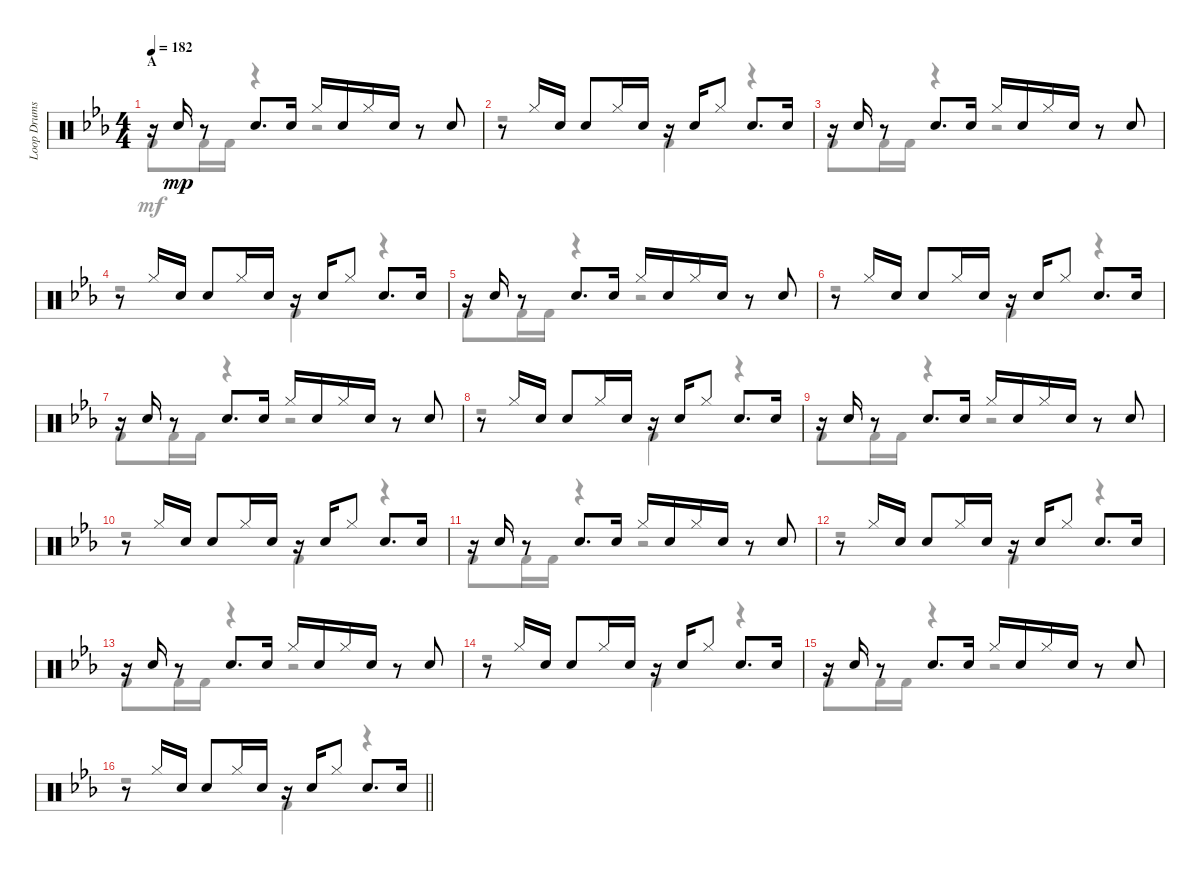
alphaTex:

\track ("Loop Drums" "Loop Drums") {instrument percussion}
\staff {score}
\articulation defaults
\voice
\ts (4 4)
\section ("" "A")
\tempo 182
\clef neutral
\ks eb
r.16{dy mp} "Electric Snare (hit)".16 r.8 "Electric Snare (hit)".8{d} "Electric Snare (hit)".16 "Hi-Hat (closed)".16 "Electric Snare (hit)".16 "Hi-Hat (closed)".16 "Electric Snare (hit)".16 r.8 "Electric Snare (hit)".8 |
r.8 "Hi-Hat (closed)".16 "Electric Snare (hit)".16 "Electric Snare (hit)".8 "Hi-Hat (closed)".16 "Electric Snare (hit)".16 r.16 "Electric Snare (hit)".16 "Hi-Hat (closed)".8 "Electric Snare (hit)".8{d} "Electric Snare (hit)".16 |
r.16 "Electric Snare (hit)".16 r.8 "Electric Snare (hit)".8{d} "Electric Snare (hit)".16 "Hi-Hat (closed)".16 "Electric Snare (hit)".16 "Hi-Hat (closed)".16 "Electric Snare (hit)".16 r.8 "Electric Snare (hit)".8 |
r.8 "Hi-Hat (closed)".16 "Electric Snare (hit)".16 "Electric Snare (hit)".8 "Hi-Hat (closed)".16 "Electric Snare (hit)".16 r.16 "Electric Snare (hit)".16 "Hi-Hat (closed)".8 "Electric Snare (hit)".8{d} "Electric Snare (hit)".16 |
r.16 "Electric Snare (hit)".16 r.8 "Electric Snare (hit)".8{d} "Electric Snare (hit)".16 "Hi-Hat (closed)".16 "Electric Snare (hit)".16 "Hi-Hat (closed)".16 "Electric Snare (hit)".16 r.8 "Electric Snare (hit)".8 |
r.8 "Hi-Hat (closed)".16 "Electric Snare (hit)".16 "Electric Snare (hit)".8 "Hi-Hat (closed)".16 "Electric Snare (hit)".16 r.16 "Electric Snare (hit)".16 "Hi-Hat (closed)".8 "Electric Snare (hit)".8{d} "Electric Snare (hit)".16 |
r.16 "Electric Snare (hit)".16 r.8 "Electric Snare (hit)".8{d} "Electric Snare (hit)".16 "Hi-Hat (closed)".16 "Electric Snare (hit)".16 "Hi-Hat (closed)".16 "Electric Snare (hit)".16 r.8 "Electric Snare (hit)".8 |
r.8 "Hi-Hat (closed)".16 "Electric Snare (hit)".16 "Electric Snare (hit)".8 "Hi-Hat (closed)".16 "Electric Snare (hit)".16 r.16 "Electric Snare (hit)".16 "Hi-Hat (closed)".8 "Electric Snare (hit)".8{d} "Electric Snare (hit)".16 |
r.16 "Electric Snare (hit)".16 r.8 "Electric Snare (hit)".8{d} "Electric Snare (hit)".16 "Hi-Hat (closed)".16 "Electric Snare (hit)".16 "Hi-Hat (closed)".16 "Electric Snare (hit)".16 r.8 "Electric Snare (hit)".8 |
r.8 "Hi-Hat (closed)".16 "Electric Snare (hit)".16 "Electric Snare (hit)".8 "Hi-Hat (closed)".16 "Electric Snare (hit)".16 r.16 "Electric Snare (hit)".16 "Hi-Hat (closed)".8 "Electric Snare (hit)".8{d} "Electric Snare (hit)".16 |
r.16 "Electric Snare (hit)".16 r.8 "Electric Snare (hit)".8{d} "Electric Snare (hit)".16 "Hi-Hat (closed)".16 "Electric Snare (hit)".16 "Hi-Hat (closed)".16 "Electric Snare (hit)".16 r.8 "Electric Snare (hit)".8 |
r.8 "Hi-Hat (closed)".16 "Electric Snare (hit)".16 "Electric Snare (hit)".8 "Hi-Hat (closed)".16 "Electric Snare (hit)".16 r.16 "Electric Snare (hit)".16 "Hi-Hat (closed)".8 "Electric Snare (hit)".8{d} "Electric Snare (hit)".16 |
r.16 "Electric Snare (hit)".16 r.8 "Electric Snare (hit)".8{d} "Electric Snare (hit)".16 "Hi-Hat (closed)".16 "Electric Snare (hit)".16 "Hi-Hat (closed)".16 "Electric Snare (hit)".16 r.8 "Electric Snare (hit)".8 |
r.8 "Hi-Hat (closed)".16 "Electric Snare (hit)".16 "Electric Snare (hit)".8 "Hi-Hat (closed)".16 "Electric Snare (hit)".16 r.16 "Electric Snare (hit)".16 "Hi-Hat (closed)".8 "Electric Snare (hit)".8{d} "Electric Snare (hit)".16 |
r.16 "Electric Snare (hit)".16 r.8 "Electric Snare (hit)".8{d} "Electric Snare (hit)".16 "Hi-Hat (closed)".16 "Electric Snare (hit)".16 "Hi-Hat (closed)".16 "Electric Snare (hit)".16 r.8 "Electric Snare (hit)".8 |
\barLineRight lightlight
r.8 "Hi-Hat (closed)".16 "Electric Snare (hit)".16 "Electric Snare (hit)".8 "Hi-Hat (closed)".16 "Electric Snare (hit)".16 r.16 "Electric Snare (hit)".16 "Hi-Hat (closed)".8 "Electric Snare (hit)".8{d} "Electric Snare (hit)".16
\voice
\clef neutral
\ottava regular
\simile none
\ks eb "Kick (hit) 2".8{dy mf} "Kick (hit) 2".16 "Kick (hit) 2".16
r.4 r.2 |
r.2 "Kick (hit) 2".4 r.4 |
"Kick (hit) 2".8 "Kick (hit) 2".16 "Kick (hit) 2".16 r.4 r.2 |
r.2 "Kick (hit) 2".4 r.4 |
"Kick (hit) 2".8 "Kick (hit) 2".16 "Kick (hit) 2".16 r.4 r.2 |
r.2 "Kick (hit) 2".4 r.4 |
"Kick (hit) 2".8 "Kick (hit) 2".16 "Kick (hit) 2".16 r.4 r.2 |
r.2 "Kick (hit) 2".4 r.4 |
"Kick (hit) 2".8 "Kick (hit) 2".16 "Kick (hit) 2".16 r.4 r.2 |
r.2 "Kick (hit) 2".4 r.4 |
"Kick (hit) 2".8 "Kick (hit) 2".16 "Kick (hit) 2".16 r.4 r.2 |
r.2 "Kick (hit) 2".4 r.4 |
"Kick (hit) 2".8 "Kick (hit) 2".16 "Kick (hit) 2".16 r.4 r.2 |
r.2 "Kick (hit) 2".4 r.4 |
"Kick (hit) 2".8 "Kick (hit) 2".16 "Kick (hit) 2".16 r.4 r.2 |
\barLineRight lightlight
r.2 "Kick (hit) 2".4 r.4
